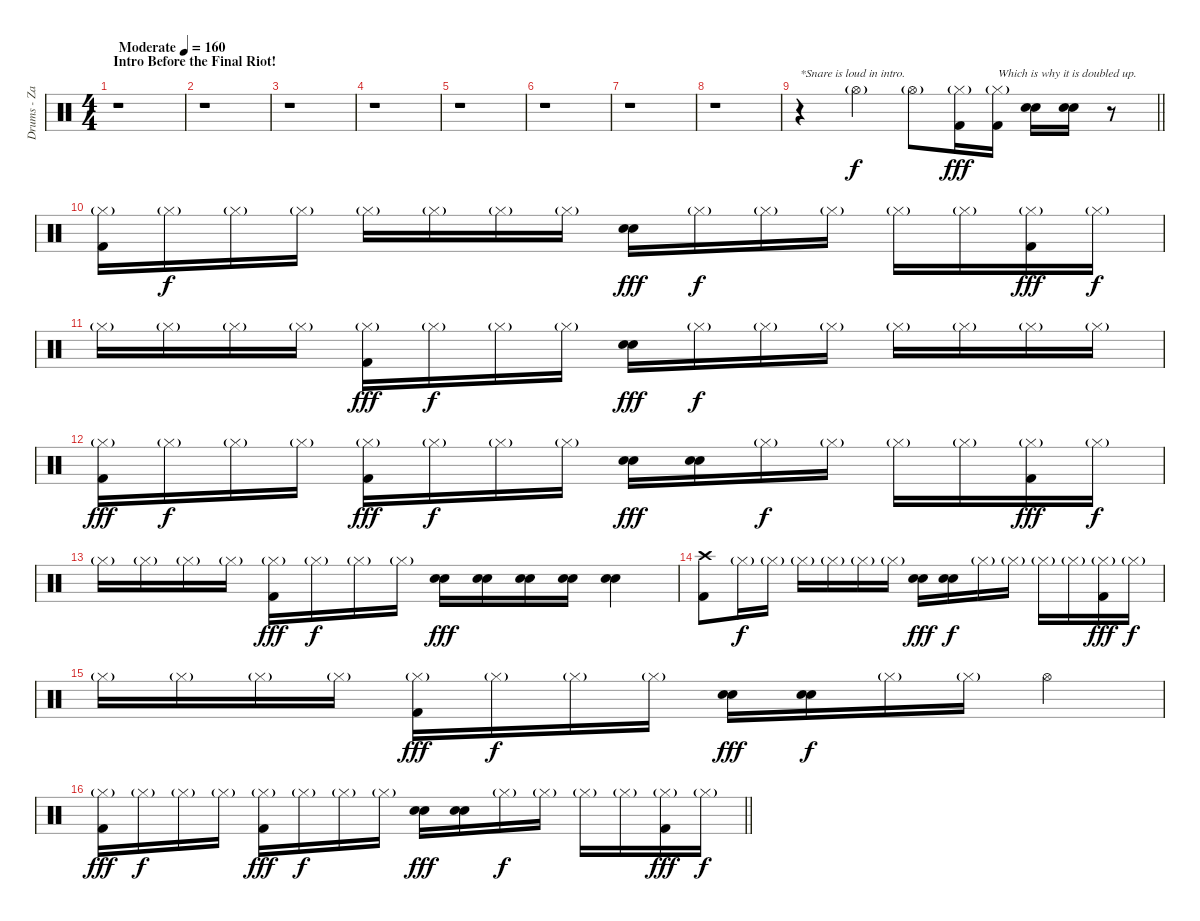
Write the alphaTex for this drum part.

\track ("Drums - Zac Farro" "Drums - Za") {instrument percussion}
\staff {score}
\articulation defaults
\ts (4 4)
\section ("" "Intro Before the Final Riot!")
\tempo (160 "Moderate")
\clef neutral
\ks c
r.1{dy f} |
r.1 |
r.1 |
r.1 |
r.1 |
r.1 |
r.1 |
r.1 |
\barLineRight lightlight
r.4{txt "*Snare is loud in intro."} "Hi-Hat (open)"{g}.4 "Hi-Hat (open)"{g}.8 ("Hi-Hat (closed)"{g} "Kick (hit) 2").16{dy fff} ("Hi-Hat (closed)"{g} "Kick (hit) 2").16{txt "Which is why it is doubled up."} ("Electric Snare (hit)" "Electric Snare (hit)").16 ("Electric Snare (hit)" "Electric Snare (hit)").16 r.8 |
("Hi-Hat (closed)"{g} "Kick (hit) 2").16 "Hi-Hat (closed)"{g}.16{dy f} "Hi-Hat (closed)"{g}.16 "Hi-Hat (closed)"{g}.16 "Hi-Hat (closed)"{g}.16 "Hi-Hat (closed)"{g}.16 "Hi-Hat (closed)"{g}.16 "Hi-Hat (closed)"{g}.16 ("Electric Snare (hit)" "Electric Snare (hit)").16{dy fff} "Hi-Hat (closed)"{g}.16{dy f} "Hi-Hat (closed)"{g}.16 "Hi-Hat (closed)"{g}.16 "Hi-Hat (closed)"{g}.16 "Hi-Hat (closed)"{g}.16 ("Hi-Hat (closed)"{g} "Kick (hit) 2").16{dy fff} "Hi-Hat (closed)"{g}.16{dy f} |
"Hi-Hat (closed)"{g}.16 "Hi-Hat (closed)"{g}.16 "Hi-Hat (closed)"{g}.16 "Hi-Hat (closed)"{g}.16 ("Hi-Hat (closed)"{g} "Kick (hit) 2").16{dy fff} "Hi-Hat (closed)"{g}.16{dy f} "Hi-Hat (closed)"{g}.16 "Hi-Hat (closed)"{g}.16 ("Electric Snare (hit)" "Electric Snare (hit)").16{dy fff} "Hi-Hat (closed)"{g}.16{dy f} "Hi-Hat (closed)"{g}.16 "Hi-Hat (closed)"{g}.16 "Hi-Hat (closed)"{g}.16 "Hi-Hat (closed)"{g}.16 "Hi-Hat (closed)"{g}.16 "Hi-Hat (closed)"{g}.16 |
("Hi-Hat (closed)"{g} "Kick (hit) 2").16{dy fff} "Hi-Hat (closed)"{g}.16{dy f} "Hi-Hat (closed)"{g}.16 "Hi-Hat (closed)"{g}.16 ("Hi-Hat (closed)"{g} "Kick (hit) 2").16{dy fff} "Hi-Hat (closed)"{g}.16{dy f} "Hi-Hat (closed)"{g}.16 "Hi-Hat (closed)"{g}.16 ("Electric Snare (hit)" "Electric Snare (hit)").16{dy fff} ("Electric Snare (hit)" "Electric Snare (hit)").16 "Hi-Hat (closed)"{g}.16{dy f} "Hi-Hat (closed)"{g}.16 "Hi-Hat (closed)"{g}.16 "Hi-Hat (closed)"{g}.16 ("Hi-Hat (closed)"{g} "Kick (hit) 2").16{dy fff} "Hi-Hat (closed)"{g}.16{dy f} |
"Hi-Hat (closed)"{g}.16 "Hi-Hat (closed)"{g}.16 "Hi-Hat (closed)"{g}.16 "Hi-Hat (closed)"{g}.16 ("Hi-Hat (closed)"{g} "Kick (hit) 2").16{dy fff} "Hi-Hat (closed)"{g}.16{dy f} "Hi-Hat (closed)"{g}.16 "Hi-Hat (closed)"{g}.16 ("Electric Snare (hit)" "Electric Snare (hit)").16{dy fff} ("Electric Snare (hit)" "Electric Snare (hit)").16 ("Electric Snare (hit)" "Electric Snare (hit)").16 ("Electric Snare (hit)" "Electric Snare (hit)").16 ("Electric Snare (hit)" "Electric Snare (hit)").4 |
("Crash high (hit)" "Kick (hit) 2").8 "Hi-Hat (closed)"{g}.16{dy f} "Hi-Hat (closed)"{g}.16 "Hi-Hat (closed)"{g}.16 "Hi-Hat (closed)"{g}.16 "Hi-Hat (closed)"{g}.16 "Hi-Hat (closed)"{g}.16 ("Electric Snare (hit)" "Electric Snare (hit)").16{dy fff} ("Electric Snare (hit)" "Electric Snare (hit)").16{dy f} "Hi-Hat (closed)"{g}.16 "Hi-Hat (closed)"{g}.16 "Hi-Hat (closed)"{g}.16 "Hi-Hat (closed)"{g}.16 ("Hi-Hat (closed)"{g} "Kick (hit) 2").16{dy fff} "Hi-Hat (closed)"{g}.16{dy f} |
"Hi-Hat (closed)"{g}.16 "Hi-Hat (closed)"{g}.16 "Hi-Hat (closed)"{g}.16 "Hi-Hat (closed)"{g}.16 ("Hi-Hat (closed)"{g} "Kick (hit) 2").16{dy fff} "Hi-Hat (closed)"{g}.16{dy f} "Hi-Hat (closed)"{g}.16 "Hi-Hat (closed)"{g}.16 ("Electric Snare (hit)" "Electric Snare (hit)").16{dy fff} ("Electric Snare (hit)" "Electric Snare (hit)").16{dy f} "Hi-Hat (closed)"{g}.16 "Hi-Hat (closed)"{g}.16 "Hi-Hat (open)".4 |
\barLineRight lightlight
("Hi-Hat (closed)"{g} "Kick (hit) 2").16{dy fff} "Hi-Hat (closed)"{g}.16{dy f} "Hi-Hat (closed)"{g}.16 "Hi-Hat (closed)"{g}.16 ("Hi-Hat (closed)"{g} "Kick (hit) 2").16{dy fff} "Hi-Hat (closed)"{g}.16{dy f} "Hi-Hat (closed)"{g}.16 "Hi-Hat (closed)"{g}.16 ("Electric Snare (hit)" "Electric Snare (hit)").16{dy fff} ("Electric Snare (hit)" "Electric Snare (hit)").16 "Hi-Hat (closed)"{g}.16{dy f} "Hi-Hat (closed)"{g}.16 "Hi-Hat (closed)"{g}.16 "Hi-Hat (closed)"{g}.16 ("Hi-Hat (closed)"{g} "Kick (hit) 2").16{dy fff} "Hi-Hat (closed)"{g}.16{dy f}
